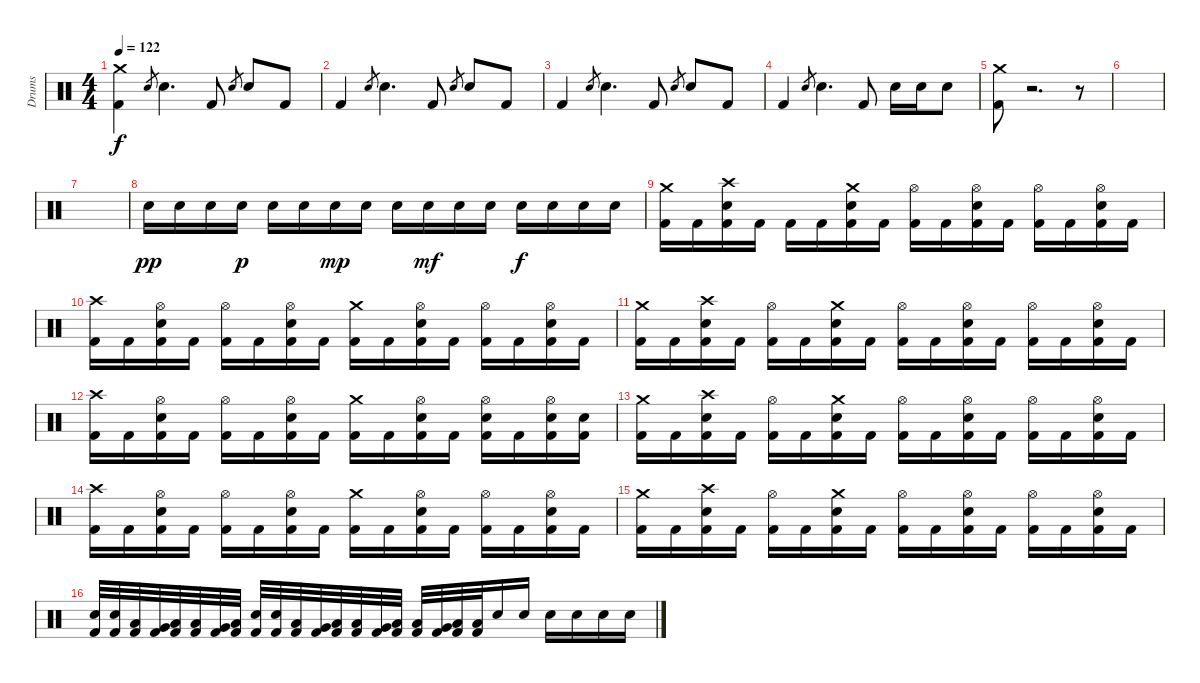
\track ("Drums" "Drums") {instrument percussion}
\staff {score}
\articulation defaults
\ts (4 4)
\tempo 122
\clef neutral
\ks c
("Crash medium (hit)" "Kick (hit) 2").4{dy f} "Electric Snare (hit)".8{gr} "Electric Snare (hit)".4{d} "Kick (hit) 2".8 "Electric Snare (hit)".8{gr} "Electric Snare (hit)".8 "Kick (hit) 2".8 |
"Kick (hit) 2".4 "Electric Snare (hit)".8{gr} "Electric Snare (hit)".4{d} "Kick (hit) 2".8 "Electric Snare (hit)".8{gr} "Electric Snare (hit)".8 "Kick (hit) 2".8 |
"Kick (hit) 2".4 "Electric Snare (hit)".8{gr} "Electric Snare (hit)".4{d} "Kick (hit) 2".8 "Electric Snare (hit)".8{gr} "Electric Snare (hit)".8 "Kick (hit) 2".8 |
"Kick (hit) 2".4 "Electric Snare (hit)".8{gr} "Electric Snare (hit)".4{d} "Kick (hit) 2".8 "Electric Snare (hit)".16 "Electric Snare (hit)".16 "Electric Snare (hit)".8 |
("Crash medium (hit)" "Kick (hit) 2").8 r.2{d volume 0} r.8 |
|
|
"Electric Snare (hit)".16{dy pp volume 16} "Electric Snare (hit)".16 "Electric Snare (hit)".16 "Electric Snare (hit)".16{dy p} "Electric Snare (hit)".16 "Electric Snare (hit)".16 "Electric Snare (hit)".16{dy mp} "Electric Snare (hit)".16 "Electric Snare (hit)".16 "Electric Snare (hit)".16{dy mf} "Electric Snare (hit)".16 "Electric Snare (hit)".16 "Electric Snare (hit)".16{dy f} "Electric Snare (hit)".16 "Electric Snare (hit)".16 "Electric Snare (hit)".16 |
("Crash medium (hit)" "Kick (hit) 2").16 "Kick (hit) 2".16 ("Crash high (hit)" "Electric Snare (hit)" "Kick (hit) 2").16 "Kick (hit) 2".16 "Kick (hit) 2".16 "Kick (hit) 2".16 ("Crash medium (hit)" "Electric Snare (hit)" "Kick (hit) 2").16 "Kick (hit) 2".16 ("Hi-Hat (open)" "Kick (hit) 2").16 "Kick (hit) 2".16 ("Hi-Hat (open)" "Electric Snare (hit)" "Kick (hit) 2").16 "Kick (hit) 2".16 ("Hi-Hat (open)" "Kick (hit) 2").16 "Kick (hit) 2".16 ("Hi-Hat (open)" "Electric Snare (hit)" "Kick (hit) 2").16 "Kick (hit) 2".16 |
("Crash high (hit)" "Kick (hit) 2").16 "Kick (hit) 2".16 ("Hi-Hat (open)" "Electric Snare (hit)" "Kick (hit) 2").16 "Kick (hit) 2".16 ("Hi-Hat (open)" "Kick (hit) 2").16 "Kick (hit) 2".16 ("Hi-Hat (open)" "Electric Snare (hit)" "Kick (hit) 2").16 "Kick (hit) 2".16 ("Crash medium (hit)" "Kick (hit) 2").16 "Kick (hit) 2".16 ("Hi-Hat (open)" "Electric Snare (hit)" "Kick (hit) 2").16 "Kick (hit) 2".16 ("Hi-Hat (open)" "Kick (hit) 2").16 "Kick (hit) 2".16 ("Hi-Hat (open)" "Electric Snare (hit)" "Kick (hit) 2").16 "Kick (hit) 2".16 |
("Crash medium (hit)" "Kick (hit) 2").16 "Kick (hit) 2".16 ("Crash high (hit)" "Electric Snare (hit)" "Kick (hit) 2").16 "Kick (hit) 2".16 ("Hi-Hat (open)" "Kick (hit) 2").16 "Kick (hit) 2".16 ("Crash medium (hit)" "Electric Snare (hit)" "Kick (hit) 2").16 "Kick (hit) 2".16 ("Hi-Hat (open)" "Kick (hit) 2").16 "Kick (hit) 2".16 ("Hi-Hat (open)" "Electric Snare (hit)" "Kick (hit) 2").16 "Kick (hit) 2".16 ("Hi-Hat (open)" "Kick (hit) 2").16 "Kick (hit) 2".16 ("Hi-Hat (open)" "Electric Snare (hit)" "Kick (hit) 2").16 "Kick (hit) 2".16 |
("Crash high (hit)" "Kick (hit) 2").16 "Kick (hit) 2".16 ("Hi-Hat (open)" "Electric Snare (hit)" "Kick (hit) 2").16 "Kick (hit) 2".16 ("Hi-Hat (open)" "Kick (hit) 2").16 "Kick (hit) 2".16 ("Hi-Hat (open)" "Electric Snare (hit)" "Kick (hit) 2").16 "Kick (hit) 2".16 ("Crash medium (hit)" "Kick (hit) 2").16 "Kick (hit) 2".16 ("Hi-Hat (open)" "Electric Snare (hit)" "Kick (hit) 2").16 "Kick (hit) 2".16 ("Hi-Hat (open)" "Electric Snare (hit)" "Kick (hit) 2").16 "Kick (hit) 2".16 ("Hi-Hat (open)" "Electric Snare (hit)" "Kick (hit) 2").16 ("Electric Snare (hit)" "Kick (hit) 2").16 |
("Crash medium (hit)" "Kick (hit) 2").16 "Kick (hit) 2".16 ("Crash high (hit)" "Electric Snare (hit)" "Kick (hit) 2").16 "Kick (hit) 2".16 ("Hi-Hat (open)" "Kick (hit) 2").16 "Kick (hit) 2".16 ("Crash medium (hit)" "Electric Snare (hit)" "Kick (hit) 2").16 "Kick (hit) 2".16 ("Hi-Hat (open)" "Kick (hit) 2").16 "Kick (hit) 2".16 ("Hi-Hat (open)" "Electric Snare (hit)" "Kick (hit) 2").16 "Kick (hit) 2".16 ("Hi-Hat (open)" "Kick (hit) 2").16 "Kick (hit) 2".16 ("Hi-Hat (open)" "Electric Snare (hit)" "Kick (hit) 2").16 "Kick (hit) 2".16 |
("Crash high (hit)" "Kick (hit) 2").16 "Kick (hit) 2".16 ("Hi-Hat (open)" "Electric Snare (hit)" "Kick (hit) 2").16 "Kick (hit) 2".16 ("Hi-Hat (open)" "Kick (hit) 2").16 "Kick (hit) 2".16 ("Hi-Hat (open)" "Electric Snare (hit)" "Kick (hit) 2").16 "Kick (hit) 2".16 ("Crash medium (hit)" "Kick (hit) 2").16 "Kick (hit) 2".16 ("Hi-Hat (open)" "Electric Snare (hit)" "Kick (hit) 2").16 "Kick (hit) 2".16 ("Hi-Hat (open)" "Kick (hit) 2").16 "Kick (hit) 2".16 ("Hi-Hat (open)" "Electric Snare (hit)" "Kick (hit) 2").16 "Kick (hit) 2".16 |
("Crash medium (hit)" "Kick (hit) 2").16 "Kick (hit) 2".16 ("Crash high (hit)" "Electric Snare (hit)" "Kick (hit) 2").16 "Kick (hit) 2".16 ("Hi-Hat (open)" "Kick (hit) 2").16 "Kick (hit) 2".16 ("Crash medium (hit)" "Electric Snare (hit)" "Kick (hit) 2").16 "Kick (hit) 2".16 ("Hi-Hat (open)" "Kick (hit) 2").16 "Kick (hit) 2".16 ("Hi-Hat (open)" "Electric Snare (hit)" "Kick (hit) 2").16 "Kick (hit) 2".16 ("Hi-Hat (open)" "Kick (hit) 2").16 "Kick (hit) 2".16 ("Hi-Hat (open)" "Electric Snare (hit)" "Kick (hit) 2").16 "Kick (hit) 2".16 |
("Electric Snare (hit)" "Kick (hit) 2").32 ("Electric Snare (hit)" "Kick (hit) 2").32 ("Low Tom (hit)" "Kick (hit) 2").32 ("Very Low Tom (hit)" "Kick (hit) 2").32 ("Low Floor Tom (hit)" "Kick (hit) 2").32 ("Low Tom (hit)" "Kick (hit) 2").32 ("Very Low Tom (hit)" "Kick (hit) 2").32 ("Low Floor Tom (hit)" "Kick (hit) 2").32 ("Electric Snare (hit)" "Kick (hit) 2").32 ("Electric Snare (hit)" "Kick (hit) 2").32 ("Low Tom (hit)" "Kick (hit) 2").32 ("Very Low Tom (hit)" "Kick (hit) 2").32 ("Low Floor Tom (hit)" "Kick (hit) 2").32 ("Low Tom (hit)" "Kick (hit) 2").32 ("Very Low Tom (hit)" "Kick (hit) 2").32 ("Low Floor Tom (hit)" "Kick (hit) 2").32 ("Low Tom (hit)" "Kick (hit) 2").32 ("Very Low Tom (hit)" "Kick (hit) 2").32 ("Low Floor Tom (hit)" "Kick (hit) 2").32 ("Low Floor Tom (hit)" "Kick (hit) 2").32 "Electric Snare (hit)".16 "Electric Snare (hit)".16 "Electric Snare (hit)".16 "Electric Snare (hit)".16 "Electric Snare (hit)".16 "Electric Snare (hit)".16
